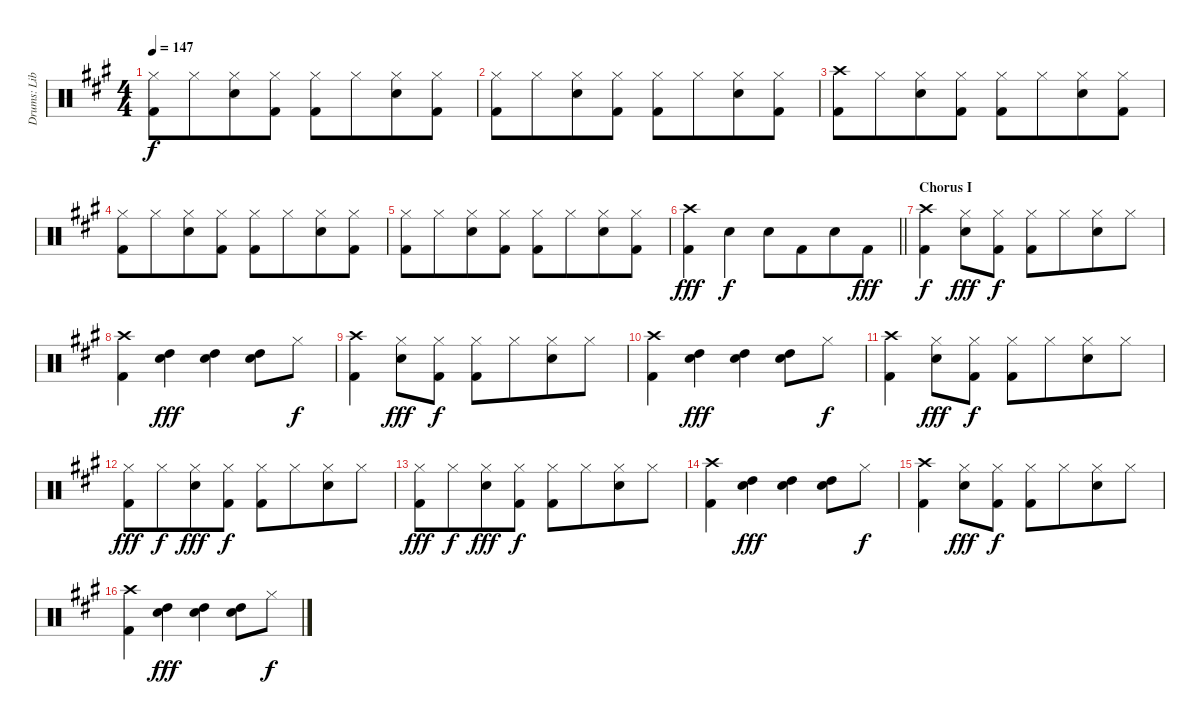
\track ("Drums: Liberty" "Drums: Lib") {instrument percussion}
\staff {score}
\articulation defaults
\ts (4 4)
\tempo 147
\clef neutral
\ks a
("Hi-Hat (closed)" "Kick (hit) 2").8{dy f} "Hi-Hat (closed)".8{beam merge} ("Hi-Hat (closed)" "Electric Snare (hit)").8 ("Hi-Hat (closed)" "Kick (hit) 2").8 ("Hi-Hat (closed)" "Kick (hit) 2").8 "Hi-Hat (closed)".8{beam merge} ("Hi-Hat (closed)" "Electric Snare (hit)").8 ("Hi-Hat (closed)" "Kick (hit) 2").8 |
("Hi-Hat (closed)" "Kick (hit) 2").8 "Hi-Hat (closed)".8{beam merge} ("Hi-Hat (closed)" "Electric Snare (hit)").8 ("Hi-Hat (closed)" "Kick (hit) 2").8 ("Hi-Hat (closed)" "Kick (hit) 2").8 "Hi-Hat (closed)".8{beam merge} ("Hi-Hat (closed)" "Electric Snare (hit)").8 ("Hi-Hat (closed)" "Kick (hit) 2").8 |
("Crash high (hit)" "Kick (hit) 2").8 "Hi-Hat (closed)".8{beam merge} ("Hi-Hat (closed)" "Electric Snare (hit)").8 ("Hi-Hat (closed)" "Kick (hit) 2").8 ("Hi-Hat (closed)" "Kick (hit) 2").8 "Hi-Hat (closed)".8{beam merge} ("Hi-Hat (closed)" "Electric Snare (hit)").8 ("Hi-Hat (closed)" "Kick (hit) 2").8 |
("Hi-Hat (closed)" "Kick (hit) 2").8 "Hi-Hat (closed)".8{beam merge} ("Hi-Hat (closed)" "Electric Snare (hit)").8 ("Hi-Hat (closed)" "Kick (hit) 2").8 ("Hi-Hat (closed)" "Kick (hit) 2").8 "Hi-Hat (closed)".8{beam merge} ("Hi-Hat (closed)" "Electric Snare (hit)").8 ("Hi-Hat (closed)" "Kick (hit) 2").8 |
("Hi-Hat (closed)" "Kick (hit) 2").8 "Hi-Hat (closed)".8{beam merge} ("Hi-Hat (closed)" "Electric Snare (hit)").8 ("Hi-Hat (closed)" "Kick (hit) 2").8 ("Hi-Hat (closed)" "Kick (hit) 2").8 "Hi-Hat (closed)".8{beam merge} ("Hi-Hat (closed)" "Electric Snare (hit)").8 ("Hi-Hat (closed)" "Kick (hit) 2").8 |
\barLineRight lightlight
("Crash high (hit)" "Kick (hit) 2").4{dy fff beam merge} "Electric Snare (hit)".4{dy f beam merge} "Electric Snare (hit)".8 "Kick (hit) 2".8{beam merge} "Electric Snare (hit)".8 "Kick (hit) 2".8{dy fff} |
\section ("" "Chorus I")
("Crash high (hit)" "Kick (hit) 2").4{dy f} ("Hi-Hat (closed)" "Electric Snare (hit)").8{dy fff} ("Hi-Hat (closed)" "Kick (hit) 2").8{dy f} ("Hi-Hat (closed)" "Kick (hit) 2").8 "Hi-Hat (closed)".8{beam merge} ("Hi-Hat (closed)" "Electric Snare (hit)").8 "Hi-Hat (closed)".8 |
("Crash high (hit)" "Kick (hit) 2").4 ("Electric Snare (hit)" "High Tom (hit)").4{dy fff} ("Electric Snare (hit)" "High Tom (hit)").4 ("Electric Snare (hit)" "High Tom (hit)").8 "Hi-Hat (closed)".8{dy f} |
("Crash high (hit)" "Kick (hit) 2").4 ("Hi-Hat (closed)" "Electric Snare (hit)").8{dy fff} ("Hi-Hat (closed)" "Kick (hit) 2").8{dy f} ("Hi-Hat (closed)" "Kick (hit) 2").8 "Hi-Hat (closed)".8{beam merge} ("Hi-Hat (closed)" "Electric Snare (hit)").8 "Hi-Hat (closed)".8 |
("Crash high (hit)" "Kick (hit) 2").4 ("Electric Snare (hit)" "High Tom (hit)").4{dy fff} ("Electric Snare (hit)" "High Tom (hit)").4 ("Electric Snare (hit)" "High Tom (hit)").8 "Hi-Hat (closed)".8{dy f} |
("Crash high (hit)" "Kick (hit) 2").4 ("Hi-Hat (closed)" "Electric Snare (hit)").8{dy fff} ("Hi-Hat (closed)" "Kick (hit) 2").8{dy f} ("Hi-Hat (closed)" "Kick (hit) 2").8 "Hi-Hat (closed)".8{beam merge} ("Hi-Hat (closed)" "Electric Snare (hit)").8 "Hi-Hat (closed)".8 |
("Hi-Hat (closed)" "Kick (hit) 2").8{dy fff} "Hi-Hat (closed)".8{dy f beam merge} ("Hi-Hat (closed)" "Electric Snare (hit)").8{dy fff} ("Hi-Hat (closed)" "Kick (hit) 2").8{dy f} ("Hi-Hat (closed)" "Kick (hit) 2").8 "Hi-Hat (closed)".8{beam merge} ("Hi-Hat (closed)" "Electric Snare (hit)").8 "Hi-Hat (closed)".8 |
("Hi-Hat (closed)" "Kick (hit) 2").8{dy fff} "Hi-Hat (closed)".8{dy f beam merge} ("Hi-Hat (closed)" "Electric Snare (hit)").8{dy fff} ("Hi-Hat (closed)" "Kick (hit) 2").8{dy f} ("Hi-Hat (closed)" "Kick (hit) 2").8 "Hi-Hat (closed)".8{beam merge} ("Hi-Hat (closed)" "Electric Snare (hit)").8 "Hi-Hat (closed)".8 |
("Crash high (hit)" "Kick (hit) 2").4 ("Electric Snare (hit)" "High Tom (hit)").4{dy fff} ("Electric Snare (hit)" "High Tom (hit)").4 ("Electric Snare (hit)" "High Tom (hit)").8 "Hi-Hat (closed)".8{dy f} |
("Crash high (hit)" "Kick (hit) 2").4 ("Hi-Hat (closed)" "Electric Snare (hit)").8{dy fff} ("Hi-Hat (closed)" "Kick (hit) 2").8{dy f} ("Hi-Hat (closed)" "Kick (hit) 2").8 "Hi-Hat (closed)".8{beam merge} ("Hi-Hat (closed)" "Electric Snare (hit)").8 "Hi-Hat (closed)".8 |
("Crash high (hit)" "Kick (hit) 2").4 ("Electric Snare (hit)" "High Tom (hit)").4{dy fff} ("Electric Snare (hit)" "High Tom (hit)").4 ("Electric Snare (hit)" "High Tom (hit)").8 "Hi-Hat (closed)".8{dy f}
